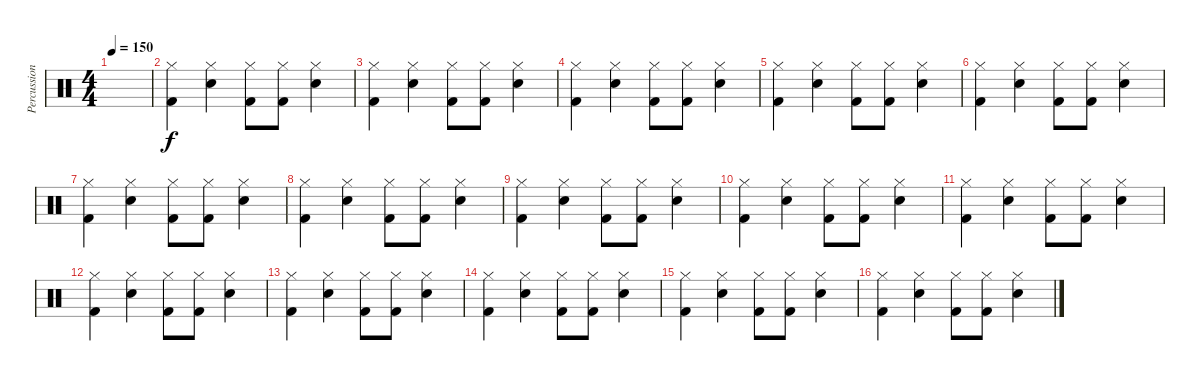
\track ("Percussion" "Percussion") {instrument percussion}
\staff {score}
\articulation defaults
\ts (4 4)
\tempo 150
\clef neutral
\ks c
|
("Hi-Hat (closed)" "Kick (hit) 2").4 ("Hi-Hat (closed)" "Electric Snare (hit)").4 ("Hi-Hat (closed)" "Kick (hit) 2").8 ("Hi-Hat (closed)" "Kick (hit) 2").8 ("Hi-Hat (closed)" "Electric Snare (hit)").4 |
("Hi-Hat (closed)" "Kick (hit) 2").4 ("Hi-Hat (closed)" "Electric Snare (hit)").4 ("Hi-Hat (closed)" "Kick (hit) 2").8 ("Hi-Hat (closed)" "Kick (hit) 2").8 ("Hi-Hat (closed)" "Electric Snare (hit)").4 |
("Hi-Hat (closed)" "Kick (hit) 2").4 ("Hi-Hat (closed)" "Electric Snare (hit)").4 ("Hi-Hat (closed)" "Kick (hit) 2").8 ("Hi-Hat (closed)" "Kick (hit) 2").8 ("Hi-Hat (closed)" "Electric Snare (hit)").4 |
("Hi-Hat (closed)" "Kick (hit) 2").4 ("Hi-Hat (closed)" "Electric Snare (hit)").4 ("Hi-Hat (closed)" "Kick (hit) 2").8 ("Hi-Hat (closed)" "Kick (hit) 2").8 ("Hi-Hat (closed)" "Electric Snare (hit)").4 |
("Hi-Hat (closed)" "Kick (hit) 2").4 ("Hi-Hat (closed)" "Electric Snare (hit)").4 ("Hi-Hat (closed)" "Kick (hit) 2").8 ("Hi-Hat (closed)" "Kick (hit) 2").8 ("Hi-Hat (closed)" "Electric Snare (hit)").4 |
("Hi-Hat (closed)" "Kick (hit) 2").4 ("Hi-Hat (closed)" "Electric Snare (hit)").4 ("Hi-Hat (closed)" "Kick (hit) 2").8 ("Hi-Hat (closed)" "Kick (hit) 2").8 ("Hi-Hat (closed)" "Electric Snare (hit)").4 |
("Hi-Hat (closed)" "Kick (hit) 2").4 ("Hi-Hat (closed)" "Electric Snare (hit)").4 ("Hi-Hat (closed)" "Kick (hit) 2").8 ("Hi-Hat (closed)" "Kick (hit) 2").8 ("Hi-Hat (closed)" "Electric Snare (hit)").4 |
("Hi-Hat (closed)" "Kick (hit) 2").4 ("Hi-Hat (closed)" "Electric Snare (hit)").4 ("Hi-Hat (closed)" "Kick (hit) 2").8 ("Hi-Hat (closed)" "Kick (hit) 2").8 ("Hi-Hat (closed)" "Electric Snare (hit)").4 |
("Hi-Hat (closed)" "Kick (hit) 2").4 ("Hi-Hat (closed)" "Electric Snare (hit)").4 ("Hi-Hat (closed)" "Kick (hit) 2").8 ("Hi-Hat (closed)" "Kick (hit) 2").8 ("Hi-Hat (closed)" "Electric Snare (hit)").4 |
("Hi-Hat (closed)" "Kick (hit) 2").4 ("Hi-Hat (closed)" "Electric Snare (hit)").4 ("Hi-Hat (closed)" "Kick (hit) 2").8 ("Hi-Hat (closed)" "Kick (hit) 2").8 ("Hi-Hat (closed)" "Electric Snare (hit)").4 |
("Hi-Hat (closed)" "Kick (hit) 2").4 ("Hi-Hat (closed)" "Electric Snare (hit)").4 ("Hi-Hat (closed)" "Kick (hit) 2").8 ("Hi-Hat (closed)" "Kick (hit) 2").8 ("Hi-Hat (closed)" "Electric Snare (hit)").4 |
("Hi-Hat (closed)" "Kick (hit) 2").4 ("Hi-Hat (closed)" "Electric Snare (hit)").4 ("Hi-Hat (closed)" "Kick (hit) 2").8 ("Hi-Hat (closed)" "Kick (hit) 2").8 ("Hi-Hat (closed)" "Electric Snare (hit)").4 |
("Hi-Hat (closed)" "Kick (hit) 2").4 ("Hi-Hat (closed)" "Electric Snare (hit)").4 ("Hi-Hat (closed)" "Kick (hit) 2").8 ("Hi-Hat (closed)" "Kick (hit) 2").8 ("Hi-Hat (closed)" "Electric Snare (hit)").4 |
("Hi-Hat (closed)" "Kick (hit) 2").4 ("Hi-Hat (closed)" "Electric Snare (hit)").4 ("Hi-Hat (closed)" "Kick (hit) 2").8 ("Hi-Hat (closed)" "Kick (hit) 2").8 ("Hi-Hat (closed)" "Electric Snare (hit)").4 |
("Hi-Hat (closed)" "Kick (hit) 2").4 ("Hi-Hat (closed)" "Electric Snare (hit)").4 ("Hi-Hat (closed)" "Kick (hit) 2").8 ("Hi-Hat (closed)" "Kick (hit) 2").8 ("Hi-Hat (closed)" "Electric Snare (hit)").4
